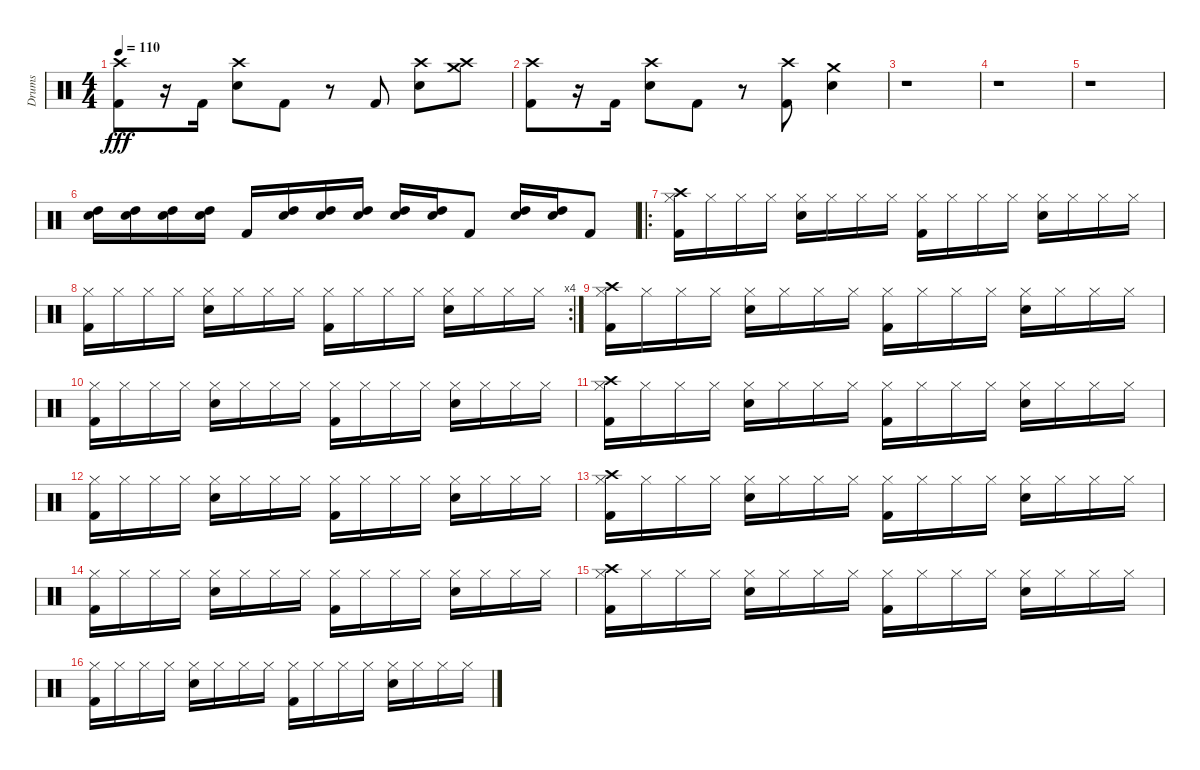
\track ("Drums" "Drums") {instrument percussion}
\staff {score}
\articulation defaults
\ts (4 4)
\tempo 110
\clef neutral
\ks c
("Crash high (hit)" "Kick (hit) 2").8{dy fff} r.16 "Kick (hit) 2".16 ("Crash high (hit)" "Electric Snare (hit)").8 "Kick (hit) 2".8 r.8 "Kick (hit) 2".8 ("Crash high (hit)" "Electric Snare (hit)").8 ("Crash high (hit)" "Crash medium (hit)").8 |
("Crash high (hit)" "Kick (hit) 2").8 r.16 "Kick (hit) 2".16 ("Crash high (hit)" "Electric Snare (hit)").8 "Kick (hit) 2".8 r.8 ("Crash high (hit)" "Kick (hit) 2").8 ("Crash medium (hit)" "Electric Snare (hit)").4 |
r.1 |
r.1 |
r.1 |
("High Tom (hit)" "Electric Snare (hit)").16 ("High Tom (hit)" "Electric Snare (hit)").16 ("High Tom (hit)" "Electric Snare (hit)").16 ("High Tom (hit)" "Electric Snare (hit)").16 "Kick (hit) 2".16 ("High Tom (hit)" "Electric Snare (hit)").16 ("High Tom (hit)" "Electric Snare (hit)").16 ("High Tom (hit)" "Electric Snare (hit)").16 ("High Tom (hit)" "Electric Snare (hit)").16 ("High Tom (hit)" "Electric Snare (hit)").16 "Kick (hit) 2".8 ("High Tom (hit)" "Electric Snare (hit)").16 ("High Tom (hit)" "Electric Snare (hit)").16 "Kick (hit) 2".8 |
\ro
("Crash high (hit)" "Hi-Hat (closed)" "Kick (hit) 2").16 "Hi-Hat (closed)".16 "Hi-Hat (closed)".16 "Hi-Hat (closed)".16 ("Hi-Hat (closed)" "Electric Snare (hit)").16 "Hi-Hat (closed)".16 "Hi-Hat (closed)".16 "Hi-Hat (closed)".16 ("Hi-Hat (closed)" "Kick (hit) 2").16 "Hi-Hat (closed)".16 "Hi-Hat (closed)".16 "Hi-Hat (closed)".16 ("Hi-Hat (closed)" "Electric Snare (hit)").16 "Hi-Hat (closed)".16 "Hi-Hat (closed)".16 "Hi-Hat (closed)".16 |
\rc 4
("Hi-Hat (closed)" "Kick (hit) 2").16 "Hi-Hat (closed)".16 "Hi-Hat (closed)".16 "Hi-Hat (closed)".16 ("Hi-Hat (closed)" "Electric Snare (hit)").16 "Hi-Hat (closed)".16 "Hi-Hat (closed)".16 "Hi-Hat (closed)".16 ("Hi-Hat (closed)" "Kick (hit) 2").16 "Hi-Hat (closed)".16 "Hi-Hat (closed)".16 "Hi-Hat (closed)".16 ("Hi-Hat (closed)" "Electric Snare (hit)").16 "Hi-Hat (closed)".16 "Hi-Hat (closed)".16 "Hi-Hat (closed)".16 |
("Crash high (hit)" "Hi-Hat (closed)" "Kick (hit) 2").16 "Hi-Hat (closed)".16 "Hi-Hat (closed)".16 "Hi-Hat (closed)".16 ("Hi-Hat (closed)" "Electric Snare (hit)").16 "Hi-Hat (closed)".16 "Hi-Hat (closed)".16 "Hi-Hat (closed)".16 ("Hi-Hat (closed)" "Kick (hit) 2").16 "Hi-Hat (closed)".16 "Hi-Hat (closed)".16 "Hi-Hat (closed)".16 ("Hi-Hat (closed)" "Electric Snare (hit)").16 "Hi-Hat (closed)".16 "Hi-Hat (closed)".16 "Hi-Hat (closed)".16 |
("Hi-Hat (closed)" "Kick (hit) 2").16 "Hi-Hat (closed)".16 "Hi-Hat (closed)".16 "Hi-Hat (closed)".16 ("Hi-Hat (closed)" "Electric Snare (hit)").16 "Hi-Hat (closed)".16 "Hi-Hat (closed)".16 "Hi-Hat (closed)".16 ("Hi-Hat (closed)" "Kick (hit) 2").16 "Hi-Hat (closed)".16 "Hi-Hat (closed)".16 "Hi-Hat (closed)".16 ("Hi-Hat (closed)" "Electric Snare (hit)").16 "Hi-Hat (closed)".16 "Hi-Hat (closed)".16 "Hi-Hat (closed)".16 |
("Crash high (hit)" "Hi-Hat (closed)" "Kick (hit) 2").16 "Hi-Hat (closed)".16 "Hi-Hat (closed)".16 "Hi-Hat (closed)".16 ("Hi-Hat (closed)" "Electric Snare (hit)").16 "Hi-Hat (closed)".16 "Hi-Hat (closed)".16 "Hi-Hat (closed)".16 ("Hi-Hat (closed)" "Kick (hit) 2").16 "Hi-Hat (closed)".16 "Hi-Hat (closed)".16 "Hi-Hat (closed)".16 ("Hi-Hat (closed)" "Electric Snare (hit)").16 "Hi-Hat (closed)".16 "Hi-Hat (closed)".16 "Hi-Hat (closed)".16 |
("Hi-Hat (closed)" "Kick (hit) 2").16 "Hi-Hat (closed)".16 "Hi-Hat (closed)".16 "Hi-Hat (closed)".16 ("Hi-Hat (closed)" "Electric Snare (hit)").16 "Hi-Hat (closed)".16 "Hi-Hat (closed)".16 "Hi-Hat (closed)".16 ("Hi-Hat (closed)" "Kick (hit) 2").16 "Hi-Hat (closed)".16 "Hi-Hat (closed)".16 "Hi-Hat (closed)".16 ("Hi-Hat (closed)" "Electric Snare (hit)").16 "Hi-Hat (closed)".16 "Hi-Hat (closed)".16 "Hi-Hat (closed)".16 |
("Crash high (hit)" "Hi-Hat (closed)" "Kick (hit) 2").16 "Hi-Hat (closed)".16 "Hi-Hat (closed)".16 "Hi-Hat (closed)".16 ("Hi-Hat (closed)" "Electric Snare (hit)").16 "Hi-Hat (closed)".16 "Hi-Hat (closed)".16 "Hi-Hat (closed)".16 ("Hi-Hat (closed)" "Kick (hit) 2").16 "Hi-Hat (closed)".16 "Hi-Hat (closed)".16 "Hi-Hat (closed)".16 ("Hi-Hat (closed)" "Electric Snare (hit)").16 "Hi-Hat (closed)".16 "Hi-Hat (closed)".16 "Hi-Hat (closed)".16 |
("Hi-Hat (closed)" "Kick (hit) 2").16 "Hi-Hat (closed)".16 "Hi-Hat (closed)".16 "Hi-Hat (closed)".16 ("Hi-Hat (closed)" "Electric Snare (hit)").16 "Hi-Hat (closed)".16 "Hi-Hat (closed)".16 "Hi-Hat (closed)".16 ("Hi-Hat (closed)" "Kick (hit) 2").16 "Hi-Hat (closed)".16 "Hi-Hat (closed)".16 "Hi-Hat (closed)".16 ("Hi-Hat (closed)" "Electric Snare (hit)").16 "Hi-Hat (closed)".16 "Hi-Hat (closed)".16 "Hi-Hat (closed)".16 |
("Crash high (hit)" "Hi-Hat (closed)" "Kick (hit) 2").16 "Hi-Hat (closed)".16 "Hi-Hat (closed)".16 "Hi-Hat (closed)".16 ("Hi-Hat (closed)" "Electric Snare (hit)").16 "Hi-Hat (closed)".16 "Hi-Hat (closed)".16 "Hi-Hat (closed)".16 ("Hi-Hat (closed)" "Kick (hit) 2").16 "Hi-Hat (closed)".16 "Hi-Hat (closed)".16 "Hi-Hat (closed)".16 ("Hi-Hat (closed)" "Electric Snare (hit)").16 "Hi-Hat (closed)".16 "Hi-Hat (closed)".16 "Hi-Hat (closed)".16 |
("Hi-Hat (closed)" "Kick (hit) 2").16 "Hi-Hat (closed)".16 "Hi-Hat (closed)".16 "Hi-Hat (closed)".16 ("Hi-Hat (closed)" "Electric Snare (hit)").16 "Hi-Hat (closed)".16 "Hi-Hat (closed)".16 "Hi-Hat (closed)".16 ("Hi-Hat (closed)" "Kick (hit) 2").16 "Hi-Hat (closed)".16 "Hi-Hat (closed)".16 "Hi-Hat (closed)".16 ("Hi-Hat (closed)" "Electric Snare (hit)").16 "Hi-Hat (closed)".16 "Hi-Hat (closed)".16 "Hi-Hat (closed)".16
